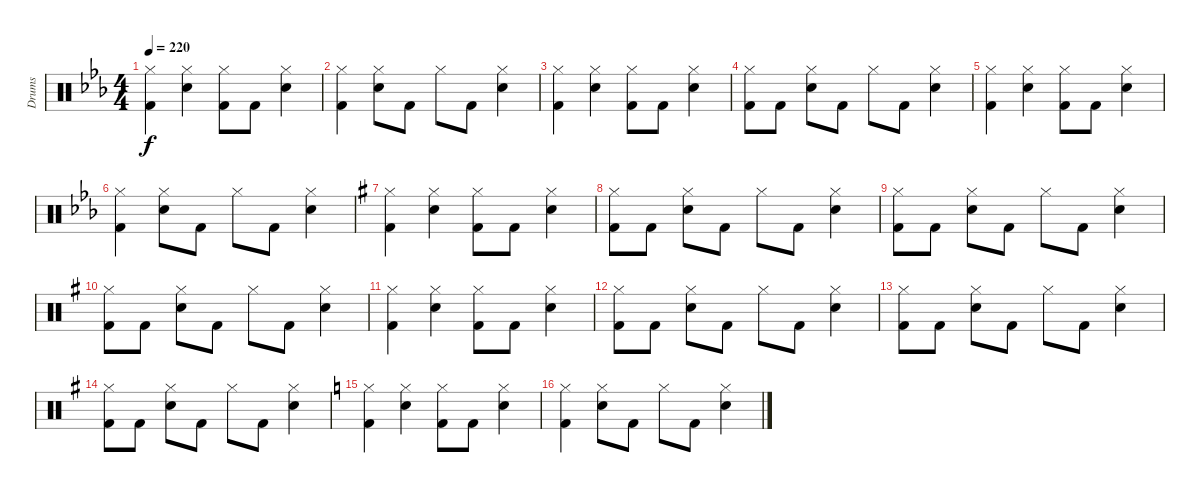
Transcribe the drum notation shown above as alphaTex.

\track ("Drums" "Drums") {instrument percussion}
\staff {score}
\articulation defaults
\ts (4 4)
\tempo 220
\clef neutral
\ks cminor
("Kick (hit) 2" "Hi-Hat (closed)").4{dy f} ("Snare (hit) 2" "Hi-Hat (closed)").4 ("Kick (hit) 2" "Hi-Hat (closed)").8 "Kick (hit) 2".8 ("Snare (hit) 2" "Hi-Hat (closed)").4 |
("Kick (hit) 2" "Hi-Hat (closed)").4 ("Snare (hit) 2" "Hi-Hat (closed)").8 "Kick (hit) 2".8 "Hi-Hat (closed)".8 "Kick (hit) 2".8 ("Snare (hit) 2" "Hi-Hat (closed)").4 |
("Kick (hit) 2" "Hi-Hat (closed)").4 ("Snare (hit) 2" "Hi-Hat (closed)").4 ("Kick (hit) 2" "Hi-Hat (closed)").8 "Kick (hit) 2".8 ("Snare (hit) 2" "Hi-Hat (closed)").4 |
("Kick (hit) 2" "Hi-Hat (closed)").8 "Kick (hit) 2".8 ("Snare (hit) 2" "Hi-Hat (closed)").8 "Kick (hit) 2".8 "Hi-Hat (closed)".8 "Kick (hit) 2".8 ("Snare (hit) 2" "Hi-Hat (closed)").4 |
("Kick (hit) 2" "Hi-Hat (closed)").4 ("Snare (hit) 2" "Hi-Hat (closed)").4 ("Kick (hit) 2" "Hi-Hat (closed)").8 "Kick (hit) 2".8 ("Snare (hit) 2" "Hi-Hat (closed)").4 |
("Kick (hit) 2" "Hi-Hat (closed)").4 ("Snare (hit) 2" "Hi-Hat (closed)").8 "Kick (hit) 2".8 "Hi-Hat (closed)".8 "Kick (hit) 2".8 ("Snare (hit) 2" "Hi-Hat (closed)").4 |
\ks eminor
("Kick (hit) 2" "Hi-Hat (closed)").4 ("Snare (hit) 2" "Hi-Hat (closed)").4 ("Kick (hit) 2" "Hi-Hat (closed)").8 "Kick (hit) 2".8 ("Snare (hit) 2" "Hi-Hat (closed)").4 |
("Kick (hit) 2" "Hi-Hat (closed)").8 "Kick (hit) 2".8 ("Snare (hit) 2" "Hi-Hat (closed)").8 "Kick (hit) 2".8 "Hi-Hat (closed)".8 "Kick (hit) 2".8 ("Snare (hit) 2" "Hi-Hat (closed)").4 |
("Kick (hit) 2" "Hi-Hat (closed)").8 "Kick (hit) 2".8 ("Snare (hit) 2" "Hi-Hat (closed)").8 "Kick (hit) 2".8 "Hi-Hat (closed)".8 "Kick (hit) 2".8 ("Snare (hit) 2" "Hi-Hat (closed)").4 |
("Kick (hit) 2" "Hi-Hat (closed)").8 "Kick (hit) 2".8 ("Snare (hit) 2" "Hi-Hat (closed)").8 "Kick (hit) 2".8 "Hi-Hat (closed)".8 "Kick (hit) 2".8 ("Snare (hit) 2" "Hi-Hat (closed)").4 |
("Kick (hit) 2" "Hi-Hat (closed)").4 ("Snare (hit) 2" "Hi-Hat (closed)").4 ("Kick (hit) 2" "Hi-Hat (closed)").8 "Kick (hit) 2".8 ("Snare (hit) 2" "Hi-Hat (closed)").4 |
("Kick (hit) 2" "Hi-Hat (closed)").8 "Kick (hit) 2".8 ("Snare (hit) 2" "Hi-Hat (closed)").8 "Kick (hit) 2".8 "Hi-Hat (closed)".8 "Kick (hit) 2".8 ("Snare (hit) 2" "Hi-Hat (closed)").4 |
("Kick (hit) 2" "Hi-Hat (closed)").8 "Kick (hit) 2".8 ("Snare (hit) 2" "Hi-Hat (closed)").8 "Kick (hit) 2".8 "Hi-Hat (closed)".8 "Kick (hit) 2".8 ("Snare (hit) 2" "Hi-Hat (closed)").4 |
("Kick (hit) 2" "Hi-Hat (closed)").8 "Kick (hit) 2".8 ("Snare (hit) 2" "Hi-Hat (closed)").8 "Kick (hit) 2".8 "Hi-Hat (closed)".8 "Kick (hit) 2".8 ("Snare (hit) 2" "Hi-Hat (closed)").4 |
\ks aminor
("Kick (hit) 2" "Hi-Hat (closed)").4 ("Snare (hit) 2" "Hi-Hat (closed)").4 ("Kick (hit) 2" "Hi-Hat (closed)").8 "Kick (hit) 2".8 ("Snare (hit) 2" "Hi-Hat (closed)").4 |
("Kick (hit) 2" "Hi-Hat (closed)").4 ("Snare (hit) 2" "Hi-Hat (closed)").8 "Kick (hit) 2".8 "Hi-Hat (closed)".8 "Kick (hit) 2".8 ("Snare (hit) 2" "Hi-Hat (closed)").4
